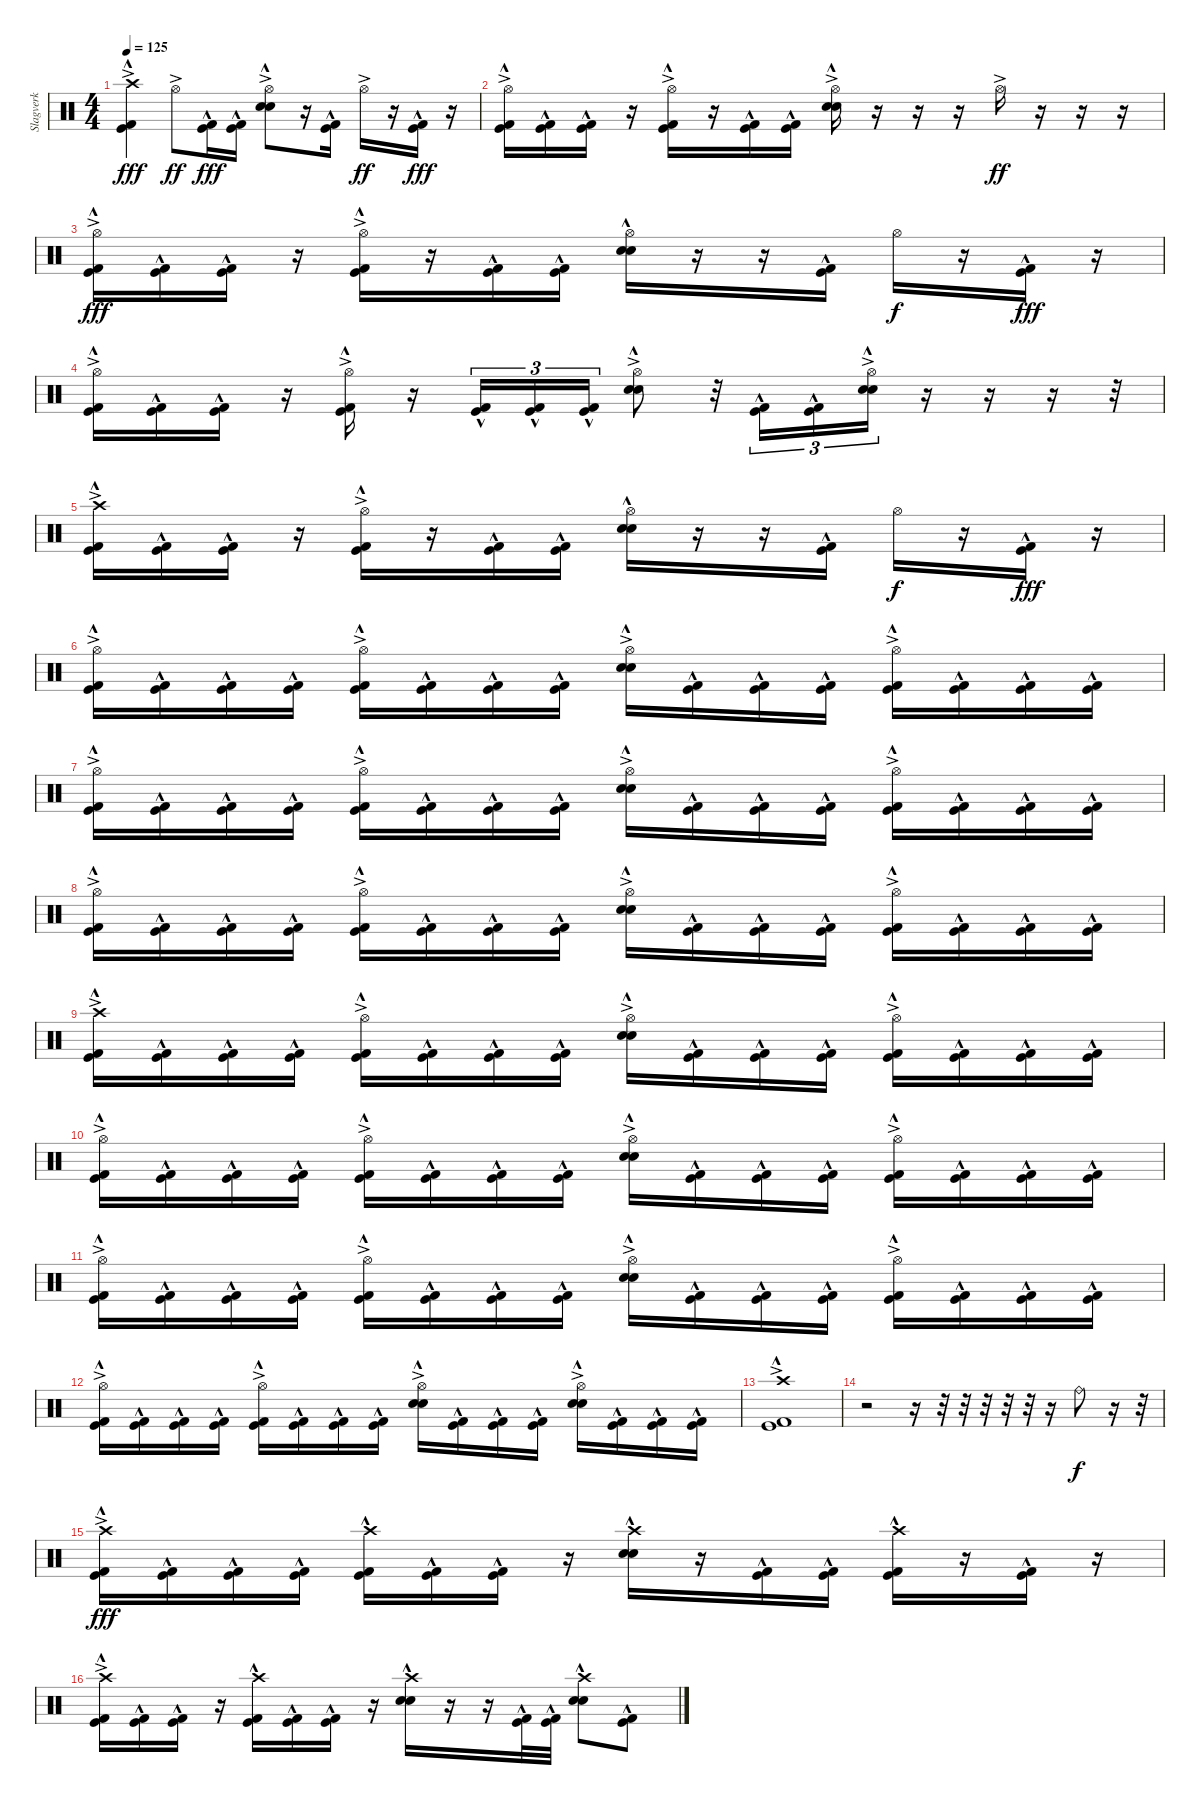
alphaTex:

\track ("Slagverk" "Slagverk") {instrument percussion}
\staff {score}
\articulation defaults
\ts (4 4)
\tempo 125
\clef neutral
\ks c
("Crash high (hit)"{ac} "Kick (hit)"{hac} "Kick (hit) 2"{hac}).4{dy fff} "Hi-Hat (open)"{ac}.8{dy ff} ("Kick (hit)"{hac} "Kick (hit) 2"{hac}).16{dy fff} ("Kick (hit)"{hac} "Kick (hit) 2"{hac}).16 ("Hi-Hat (open)"{ac} "Electric Snare (hit)"{hac} "Snare (hit) 2").8 r.16 ("Kick (hit)"{hac} "Kick (hit) 2"{hac}).16 "Hi-Hat (open)"{ac}.16{dy ff} r.16 ("Kick (hit)"{hac} "Kick (hit) 2"{hac}).16{dy fff} r.16 |
("Hi-Hat (open)"{ac} "Kick (hit)"{hac} "Kick (hit) 2"{hac}).16 ("Kick (hit)"{hac} "Kick (hit) 2"{hac}).16 ("Kick (hit)"{hac} "Kick (hit) 2"{hac}).16 r.16 ("Hi-Hat (open)"{ac} "Kick (hit)"{hac} "Kick (hit) 2"{hac}).16 r.16 ("Kick (hit)"{hac} "Kick (hit) 2"{hac}).16 ("Kick (hit)"{hac} "Kick (hit) 2"{hac}).16 ("Hi-Hat (open)"{ac} "Electric Snare (hit)"{hac} "Snare (hit) 2").16 r.16 r.16 r.16 "Hi-Hat (open)"{ac}.16{dy ff} r.16 r.16 r.16 |
("Hi-Hat (open)"{ac} "Kick (hit)"{hac} "Kick (hit) 2"{hac}).16{dy fff} ("Kick (hit)"{hac} "Kick (hit) 2"{hac}).16 ("Kick (hit)"{hac} "Kick (hit) 2"{hac}).16 r.16 ("Hi-Hat (open)"{ac} "Kick (hit)"{hac} "Kick (hit) 2"{hac}).16 r.16 ("Kick (hit)"{hac} "Kick (hit) 2"{hac}).16 ("Kick (hit)"{hac} "Kick (hit) 2"{hac}).16 ("Hi-Hat (open)" "Electric Snare (hit)"{hac} "Snare (hit) 2").16 r.16 r.16 ("Kick (hit)"{hac} "Kick (hit) 2"{hac}).16 "Hi-Hat (open)".16{dy f} r.16 ("Kick (hit)"{hac} "Kick (hit) 2"{hac}).16{dy fff} r.16 |
("Hi-Hat (open)"{ac} "Kick (hit)"{hac} "Kick (hit) 2"{hac}).16 ("Kick (hit)"{hac} "Kick (hit) 2"{hac}).16 ("Kick (hit)"{hac} "Kick (hit) 2"{hac}).16 r.16 ("Hi-Hat (open)"{ac} "Kick (hit)"{hac} "Kick (hit) 2"{hac}).16 r.16 ("Kick (hit)"{hac} "Kick (hit) 2"{hac}).16{tu (3 2)} ("Kick (hit)"{hac} "Kick (hit) 2"{hac}).16{tu (3 2)} ("Kick (hit)"{hac} "Kick (hit) 2"{hac}).16{tu (3 2)} ("Hi-Hat (open)"{ac} "Electric Snare (hit)"{hac} "Snare (hit) 2").8 r.32 ("Kick (hit)"{hac} "Kick (hit) 2"{hac}).16{tu (3 2)} ("Kick (hit)"{hac} "Kick (hit) 2"{hac}).16{tu (3 2)} ("Hi-Hat (open)"{ac} "Electric Snare (hit)"{hac} "Snare (hit) 2").16{tu (3 2)} r.16 r.16 r.16 r.32 |
("Crash high (hit)"{ac} "Kick (hit)"{hac} "Kick (hit) 2"{hac}).16 ("Kick (hit)"{hac} "Kick (hit) 2"{hac}).16 ("Kick (hit)"{hac} "Kick (hit) 2"{hac}).16 r.16 ("Hi-Hat (open)"{ac} "Kick (hit)"{hac} "Kick (hit) 2"{hac}).16 r.16 ("Kick (hit)"{hac} "Kick (hit) 2"{hac}).16 ("Kick (hit)"{hac} "Kick (hit) 2"{hac}).16 ("Hi-Hat (open)" "Electric Snare (hit)"{hac} "Snare (hit) 2").16 r.16 r.16 ("Kick (hit)"{hac} "Kick (hit) 2"{hac}).16 "Hi-Hat (open)".16{dy f} r.16 ("Kick (hit)"{hac} "Kick (hit) 2"{hac}).16{dy fff} r.16 |
("Hi-Hat (open)"{ac} "Kick (hit)"{hac} "Kick (hit) 2"{hac}).16 ("Kick (hit)"{hac} "Kick (hit) 2"{hac}).16 ("Kick (hit)"{hac} "Kick (hit) 2"{hac}).16 ("Kick (hit)"{hac} "Kick (hit) 2"{hac}).16 ("Hi-Hat (open)"{ac} "Kick (hit)"{hac} "Kick (hit) 2"{hac}).16 ("Kick (hit)"{hac} "Kick (hit) 2"{hac}).16 ("Kick (hit)"{hac} "Kick (hit) 2"{hac}).16 ("Kick (hit)"{hac} "Kick (hit) 2"{hac}).16 ("Hi-Hat (open)"{ac} "Electric Snare (hit)"{hac} "Snare (hit) 2").16 ("Kick (hit)"{hac} "Kick (hit) 2"{hac}).16 ("Kick (hit)"{hac} "Kick (hit) 2"{hac}).16 ("Kick (hit)"{hac} "Kick (hit) 2"{hac}).16 ("Hi-Hat (open)"{ac} "Kick (hit)"{hac} "Kick (hit) 2"{hac}).16 ("Kick (hit)"{hac} "Kick (hit) 2"{hac}).16 ("Kick (hit)"{hac} "Kick (hit) 2"{hac}).16 ("Kick (hit)"{hac} "Kick (hit) 2"{hac}).16 |
("Hi-Hat (open)"{ac} "Kick (hit)"{hac} "Kick (hit) 2"{hac}).16 ("Kick (hit)"{hac} "Kick (hit) 2"{hac}).16 ("Kick (hit)"{hac} "Kick (hit) 2"{hac}).16 ("Kick (hit)"{hac} "Kick (hit) 2"{hac}).16 ("Hi-Hat (open)"{ac} "Kick (hit)"{hac} "Kick (hit) 2"{hac}).16 ("Kick (hit)"{hac} "Kick (hit) 2"{hac}).16 ("Kick (hit)"{hac} "Kick (hit) 2"{hac}).16 ("Kick (hit)"{hac} "Kick (hit) 2"{hac}).16 ("Hi-Hat (open)"{ac} "Electric Snare (hit)"{hac} "Snare (hit) 2").16 ("Kick (hit)"{hac} "Kick (hit) 2"{hac}).16 ("Kick (hit)"{hac} "Kick (hit) 2"{hac}).16 ("Kick (hit)"{hac} "Kick (hit) 2"{hac}).16 ("Hi-Hat (open)"{ac} "Kick (hit)"{hac} "Kick (hit) 2"{hac}).16 ("Kick (hit)"{hac} "Kick (hit) 2"{hac}).16 ("Kick (hit)"{hac} "Kick (hit) 2"{hac}).16 ("Kick (hit)"{hac} "Kick (hit) 2"{hac}).16 |
("Hi-Hat (open)"{ac} "Kick (hit)"{hac} "Kick (hit) 2"{hac}).16 ("Kick (hit)"{hac} "Kick (hit) 2"{hac}).16 ("Kick (hit)"{hac} "Kick (hit) 2"{hac}).16 ("Kick (hit)"{hac} "Kick (hit) 2"{hac}).16 ("Hi-Hat (open)"{ac} "Kick (hit)"{hac} "Kick (hit) 2"{hac}).16 ("Kick (hit)"{hac} "Kick (hit) 2"{hac}).16 ("Kick (hit)"{hac} "Kick (hit) 2"{hac}).16 ("Kick (hit)"{hac} "Kick (hit) 2"{hac}).16 ("Hi-Hat (open)"{ac} "Electric Snare (hit)"{hac} "Snare (hit) 2").16 ("Kick (hit)"{hac} "Kick (hit) 2"{hac}).16 ("Kick (hit)"{hac} "Kick (hit) 2"{hac}).16 ("Kick (hit)"{hac} "Kick (hit) 2"{hac}).16 ("Hi-Hat (open)"{ac} "Kick (hit)"{hac} "Kick (hit) 2"{hac}).16 ("Kick (hit)"{hac} "Kick (hit) 2"{hac}).16 ("Kick (hit)"{hac} "Kick (hit) 2"{hac}).16 ("Kick (hit)"{hac} "Kick (hit) 2"{hac}).16 |
("Crash high (hit)"{ac} "Kick (hit)"{hac} "Kick (hit) 2"{hac}).16 ("Kick (hit)"{hac} "Kick (hit) 2"{hac}).16 ("Kick (hit)"{hac} "Kick (hit) 2"{hac}).16 ("Kick (hit)"{hac} "Kick (hit) 2"{hac}).16 ("Hi-Hat (open)"{ac} "Kick (hit)"{hac} "Kick (hit) 2"{hac}).16 ("Kick (hit)"{hac} "Kick (hit) 2"{hac}).16 ("Kick (hit)"{hac} "Kick (hit) 2"{hac}).16 ("Kick (hit)"{hac} "Kick (hit) 2"{hac}).16 ("Hi-Hat (open)"{ac} "Electric Snare (hit)"{hac} "Snare (hit) 2").16 ("Kick (hit)"{hac} "Kick (hit) 2"{hac}).16 ("Kick (hit)"{hac} "Kick (hit) 2"{hac}).16 ("Kick (hit)"{hac} "Kick (hit) 2"{hac}).16 ("Hi-Hat (open)"{ac} "Kick (hit)"{hac} "Kick (hit) 2"{hac}).16 ("Kick (hit)"{hac} "Kick (hit) 2"{hac}).16 ("Kick (hit)"{hac} "Kick (hit) 2"{hac}).16 ("Kick (hit)"{hac} "Kick (hit) 2"{hac}).16 |
("Hi-Hat (open)"{ac} "Kick (hit)"{hac} "Kick (hit) 2"{hac}).16 ("Kick (hit)"{hac} "Kick (hit) 2"{hac}).16 ("Kick (hit)"{hac} "Kick (hit) 2"{hac}).16 ("Kick (hit)"{hac} "Kick (hit) 2"{hac}).16 ("Hi-Hat (open)"{ac} "Kick (hit)"{hac} "Kick (hit) 2"{hac}).16 ("Kick (hit)"{hac} "Kick (hit) 2"{hac}).16 ("Kick (hit)"{hac} "Kick (hit) 2"{hac}).16 ("Kick (hit)"{hac} "Kick (hit) 2"{hac}).16 ("Hi-Hat (open)"{ac} "Electric Snare (hit)"{hac} "Snare (hit) 2").16 ("Kick (hit)"{hac} "Kick (hit) 2"{hac}).16 ("Kick (hit)"{hac} "Kick (hit) 2"{hac}).16 ("Kick (hit)"{hac} "Kick (hit) 2"{hac}).16 ("Hi-Hat (open)"{ac} "Kick (hit)"{hac} "Kick (hit) 2"{hac}).16 ("Kick (hit)"{hac} "Kick (hit) 2"{hac}).16 ("Kick (hit)"{hac} "Kick (hit) 2"{hac}).16 ("Kick (hit)"{hac} "Kick (hit) 2"{hac}).16 |
("Hi-Hat (open)"{ac} "Kick (hit)"{hac} "Kick (hit) 2"{hac}).16 ("Kick (hit)"{hac} "Kick (hit) 2"{hac}).16 ("Kick (hit)"{hac} "Kick (hit) 2"{hac}).16 ("Kick (hit)"{hac} "Kick (hit) 2"{hac}).16 ("Hi-Hat (open)"{ac} "Kick (hit)"{hac} "Kick (hit) 2"{hac}).16 ("Kick (hit)"{hac} "Kick (hit) 2"{hac}).16 ("Kick (hit)"{hac} "Kick (hit) 2"{hac}).16 ("Kick (hit)"{hac} "Kick (hit) 2"{hac}).16 ("Hi-Hat (open)"{ac} "Electric Snare (hit)"{hac} "Snare (hit) 2").16 ("Kick (hit)"{hac} "Kick (hit) 2"{hac}).16 ("Kick (hit)"{hac} "Kick (hit) 2"{hac}).16 ("Kick (hit)"{hac} "Kick (hit) 2"{hac}).16 ("Hi-Hat (open)"{ac} "Kick (hit)"{hac} "Kick (hit) 2"{hac}).16 ("Kick (hit)"{hac} "Kick (hit) 2"{hac}).16 ("Kick (hit)"{hac} "Kick (hit) 2"{hac}).16 ("Kick (hit)"{hac} "Kick (hit) 2"{hac}).16 |
("Hi-Hat (open)"{ac} "Kick (hit)"{hac} "Kick (hit) 2"{hac}).16 ("Kick (hit)"{hac} "Kick (hit) 2"{hac}).16 ("Kick (hit)"{hac} "Kick (hit) 2"{hac}).16 ("Kick (hit)"{hac} "Kick (hit) 2"{hac}).16 ("Hi-Hat (open)"{ac} "Kick (hit)"{hac} "Kick (hit) 2"{hac}).16 ("Kick (hit)"{hac} "Kick (hit) 2"{hac}).16 ("Kick (hit)"{hac} "Kick (hit) 2"{hac}).16 ("Kick (hit)"{hac} "Kick (hit) 2"{hac}).16 ("Hi-Hat (open)"{ac} "Electric Snare (hit)"{hac} "Snare (hit) 2").16 ("Kick (hit)"{hac} "Kick (hit) 2"{hac}).16 ("Kick (hit)"{hac} "Kick (hit) 2"{hac}).16 ("Kick (hit)"{hac} "Kick (hit) 2"{hac}).16 ("Hi-Hat (open)"{ac} "Electric Snare (hit)"{hac} "Snare (hit) 2").16 ("Kick (hit)"{hac} "Kick (hit) 2"{hac}).16 ("Kick (hit)"{hac} "Kick (hit) 2"{hac}).16 ("Kick (hit)"{hac} "Kick (hit) 2"{hac}).16 |
("Crash high (hit)"{ac} "Kick (hit)"{hac} "Kick (hit) 2"{hac}).1 |
r.2 r.16 r.32 r.32 r.32 r.32 r.32 r.16 "Ride (bell)".8{dy f} r.16 r.32 |
("Crash high (hit)"{ac} "Kick (hit)"{hac} "Kick (hit) 2"{hac}).16{dy fff} ("Kick (hit)"{hac} "Kick (hit) 2"{hac}).16 ("Kick (hit)"{hac} "Kick (hit) 2"{hac}).16 ("Kick (hit)"{hac} "Kick (hit) 2"{hac}).16 ("Crash high (hit)" "Kick (hit)"{hac} "Kick (hit) 2"{hac}).16 ("Kick (hit)"{hac} "Kick (hit) 2"{hac}).16 ("Kick (hit)"{hac} "Kick (hit) 2"{hac}).16 r.16 ("Crash high (hit)" "Electric Snare (hit)"{hac} "Snare (hit) 2").16 r.16 ("Kick (hit)"{hac} "Kick (hit) 2"{hac}).16 ("Kick (hit)"{hac} "Kick (hit) 2"{hac}).16 ("Crash high (hit)" "Kick (hit)"{hac} "Kick (hit) 2"{hac}).16 r.16 ("Kick (hit)"{hac} "Kick (hit) 2"{hac}).16 r.16 |
("Crash high (hit)"{ac} "Kick (hit)"{hac} "Kick (hit) 2"{hac}).16 ("Kick (hit)"{hac} "Kick (hit) 2"{hac}).16 ("Kick (hit)"{hac} "Kick (hit) 2"{hac}).16 r.16 ("Crash high (hit)" "Kick (hit)"{hac} "Kick (hit) 2"{hac}).16 ("Kick (hit)"{hac} "Kick (hit) 2"{hac}).16 ("Kick (hit)"{hac} "Kick (hit) 2"{hac}).16 r.16 ("Crash high (hit)" "Electric Snare (hit)"{hac} "Snare (hit) 2").16 r.16 r.16 ("Kick (hit)"{hac} "Kick (hit) 2"{hac}).32 ("Kick (hit)"{hac} "Kick (hit) 2"{hac}).32 ("Crash high (hit)" "Electric Snare (hit)"{hac} "Snare (hit) 2").8 ("Kick (hit)"{hac} "Kick (hit) 2"{hac}).8
